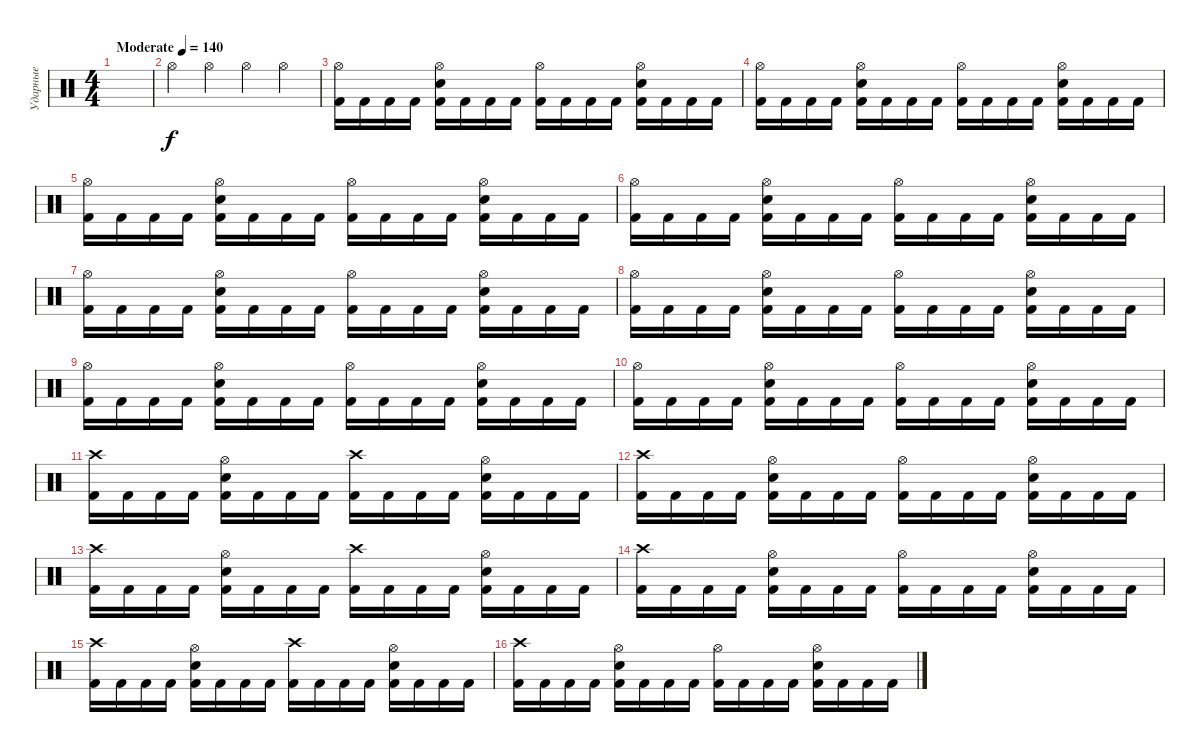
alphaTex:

\track ("Ударные" "Ударные") {mute instrument percussion}
\staff {score}
\articulation defaults
\ts (4 4)
\tempo (140 "Moderate")
\clef neutral
\ks c
|
"Hi-Hat (open)".4 "Hi-Hat (open)".4 "Hi-Hat (open)".4 "Hi-Hat (open)".4 |
("Hi-Hat (open)" "Kick (hit) 2").16 "Kick (hit) 2".16 "Kick (hit) 2".16 "Kick (hit) 2".16 ("Hi-Hat (open)" "Electric Snare (hit)" "Kick (hit) 2").16 "Kick (hit) 2".16 "Kick (hit) 2".16 "Kick (hit) 2".16 ("Hi-Hat (open)" "Kick (hit) 2").16 "Kick (hit) 2".16 "Kick (hit) 2".16 "Kick (hit) 2".16 ("Hi-Hat (open)" "Electric Snare (hit)" "Kick (hit) 2").16 "Kick (hit) 2".16 "Kick (hit) 2".16 "Kick (hit) 2".16 |
("Hi-Hat (open)" "Kick (hit) 2").16 "Kick (hit) 2".16 "Kick (hit) 2".16 "Kick (hit) 2".16 ("Hi-Hat (open)" "Electric Snare (hit)" "Kick (hit) 2").16 "Kick (hit) 2".16 "Kick (hit) 2".16 "Kick (hit) 2".16 ("Hi-Hat (open)" "Kick (hit) 2").16 "Kick (hit) 2".16 "Kick (hit) 2".16 "Kick (hit) 2".16 ("Hi-Hat (open)" "Electric Snare (hit)" "Kick (hit) 2").16 "Kick (hit) 2".16 "Kick (hit) 2".16 "Kick (hit) 2".16 |
("Hi-Hat (open)" "Kick (hit) 2").16 "Kick (hit) 2".16 "Kick (hit) 2".16 "Kick (hit) 2".16 ("Hi-Hat (open)" "Electric Snare (hit)" "Kick (hit) 2").16 "Kick (hit) 2".16 "Kick (hit) 2".16 "Kick (hit) 2".16 ("Hi-Hat (open)" "Kick (hit) 2").16 "Kick (hit) 2".16 "Kick (hit) 2".16 "Kick (hit) 2".16 ("Hi-Hat (open)" "Electric Snare (hit)" "Kick (hit) 2").16 "Kick (hit) 2".16 "Kick (hit) 2".16 "Kick (hit) 2".16 |
("Hi-Hat (open)" "Kick (hit) 2").16 "Kick (hit) 2".16 "Kick (hit) 2".16 "Kick (hit) 2".16 ("Hi-Hat (open)" "Electric Snare (hit)" "Kick (hit) 2").16 "Kick (hit) 2".16 "Kick (hit) 2".16 "Kick (hit) 2".16 ("Hi-Hat (open)" "Kick (hit) 2").16 "Kick (hit) 2".16 "Kick (hit) 2".16 "Kick (hit) 2".16 ("Hi-Hat (open)" "Electric Snare (hit)" "Kick (hit) 2").16 "Kick (hit) 2".16 "Kick (hit) 2".16 "Kick (hit) 2".16 |
("Hi-Hat (open)" "Kick (hit) 2").16 "Kick (hit) 2".16 "Kick (hit) 2".16 "Kick (hit) 2".16 ("Hi-Hat (open)" "Electric Snare (hit)" "Kick (hit) 2").16 "Kick (hit) 2".16 "Kick (hit) 2".16 "Kick (hit) 2".16 ("Hi-Hat (open)" "Kick (hit) 2").16 "Kick (hit) 2".16 "Kick (hit) 2".16 "Kick (hit) 2".16 ("Hi-Hat (open)" "Electric Snare (hit)" "Kick (hit) 2").16 "Kick (hit) 2".16 "Kick (hit) 2".16 "Kick (hit) 2".16 |
("Hi-Hat (open)" "Kick (hit) 2").16 "Kick (hit) 2".16 "Kick (hit) 2".16 "Kick (hit) 2".16 ("Hi-Hat (open)" "Electric Snare (hit)" "Kick (hit) 2").16 "Kick (hit) 2".16 "Kick (hit) 2".16 "Kick (hit) 2".16 ("Hi-Hat (open)" "Kick (hit) 2").16 "Kick (hit) 2".16 "Kick (hit) 2".16 "Kick (hit) 2".16 ("Hi-Hat (open)" "Electric Snare (hit)" "Kick (hit) 2").16 "Kick (hit) 2".16 "Kick (hit) 2".16 "Kick (hit) 2".16 |
("Hi-Hat (open)" "Kick (hit) 2").16 "Kick (hit) 2".16 "Kick (hit) 2".16 "Kick (hit) 2".16 ("Hi-Hat (open)" "Electric Snare (hit)" "Kick (hit) 2").16 "Kick (hit) 2".16 "Kick (hit) 2".16 "Kick (hit) 2".16 ("Hi-Hat (open)" "Kick (hit) 2").16 "Kick (hit) 2".16 "Kick (hit) 2".16 "Kick (hit) 2".16 ("Hi-Hat (open)" "Electric Snare (hit)" "Kick (hit) 2").16 "Kick (hit) 2".16 "Kick (hit) 2".16 "Kick (hit) 2".16 |
("Hi-Hat (open)" "Kick (hit) 2").16 "Kick (hit) 2".16 "Kick (hit) 2".16 "Kick (hit) 2".16 ("Hi-Hat (open)" "Electric Snare (hit)" "Kick (hit) 2").16 "Kick (hit) 2".16 "Kick (hit) 2".16 "Kick (hit) 2".16 ("Hi-Hat (open)" "Kick (hit) 2").16 "Kick (hit) 2".16 "Kick (hit) 2".16 "Kick (hit) 2".16 ("Hi-Hat (open)" "Electric Snare (hit)" "Kick (hit) 2").16 "Kick (hit) 2".16 "Kick (hit) 2".16 "Kick (hit) 2".16 |
("Crash high (hit)" "Kick (hit) 2").16 "Kick (hit) 2".16 "Kick (hit) 2".16 "Kick (hit) 2".16 ("Hi-Hat (open)" "Electric Snare (hit)" "Kick (hit) 2").16 "Kick (hit) 2".16 "Kick (hit) 2".16 "Kick (hit) 2".16 ("Crash high (hit)" "Kick (hit) 2").16 "Kick (hit) 2".16 "Kick (hit) 2".16 "Kick (hit) 2".16 ("Hi-Hat (open)" "Electric Snare (hit)" "Kick (hit) 2").16 "Kick (hit) 2".16 "Kick (hit) 2".16 "Kick (hit) 2".16 |
("Crash high (hit)" "Kick (hit) 2").16 "Kick (hit) 2".16 "Kick (hit) 2".16 "Kick (hit) 2".16 ("Hi-Hat (open)" "Electric Snare (hit)" "Kick (hit) 2").16 "Kick (hit) 2".16 "Kick (hit) 2".16 "Kick (hit) 2".16 ("Hi-Hat (open)" "Kick (hit) 2").16 "Kick (hit) 2".16 "Kick (hit) 2".16 "Kick (hit) 2".16 ("Hi-Hat (open)" "Electric Snare (hit)" "Kick (hit) 2").16 "Kick (hit) 2".16 "Kick (hit) 2".16 "Kick (hit) 2".16 |
("Crash high (hit)" "Kick (hit) 2").16 "Kick (hit) 2".16 "Kick (hit) 2".16 "Kick (hit) 2".16 ("Hi-Hat (open)" "Electric Snare (hit)" "Kick (hit) 2").16 "Kick (hit) 2".16 "Kick (hit) 2".16 "Kick (hit) 2".16 ("Crash high (hit)" "Kick (hit) 2").16 "Kick (hit) 2".16 "Kick (hit) 2".16 "Kick (hit) 2".16 ("Hi-Hat (open)" "Electric Snare (hit)" "Kick (hit) 2").16 "Kick (hit) 2".16 "Kick (hit) 2".16 "Kick (hit) 2".16 |
("Crash high (hit)" "Kick (hit) 2").16 "Kick (hit) 2".16 "Kick (hit) 2".16 "Kick (hit) 2".16 ("Hi-Hat (open)" "Electric Snare (hit)" "Kick (hit) 2").16 "Kick (hit) 2".16 "Kick (hit) 2".16 "Kick (hit) 2".16 ("Hi-Hat (open)" "Kick (hit) 2").16 "Kick (hit) 2".16 "Kick (hit) 2".16 "Kick (hit) 2".16 ("Hi-Hat (open)" "Electric Snare (hit)" "Kick (hit) 2").16 "Kick (hit) 2".16 "Kick (hit) 2".16 "Kick (hit) 2".16 |
("Crash high (hit)" "Kick (hit) 2").16 "Kick (hit) 2".16 "Kick (hit) 2".16 "Kick (hit) 2".16 ("Hi-Hat (open)" "Electric Snare (hit)" "Kick (hit) 2").16 "Kick (hit) 2".16 "Kick (hit) 2".16 "Kick (hit) 2".16 ("Crash high (hit)" "Kick (hit) 2").16 "Kick (hit) 2".16 "Kick (hit) 2".16 "Kick (hit) 2".16 ("Hi-Hat (open)" "Electric Snare (hit)" "Kick (hit) 2").16 "Kick (hit) 2".16 "Kick (hit) 2".16 "Kick (hit) 2".16 |
("Crash high (hit)" "Kick (hit) 2").16 "Kick (hit) 2".16 "Kick (hit) 2".16 "Kick (hit) 2".16 ("Hi-Hat (open)" "Electric Snare (hit)" "Kick (hit) 2").16 "Kick (hit) 2".16 "Kick (hit) 2".16 "Kick (hit) 2".16 ("Hi-Hat (open)" "Kick (hit) 2").16 "Kick (hit) 2".16 "Kick (hit) 2".16 "Kick (hit) 2".16 ("Hi-Hat (open)" "Electric Snare (hit)" "Kick (hit) 2").16 "Kick (hit) 2".16 "Kick (hit) 2".16 "Kick (hit) 2".16
